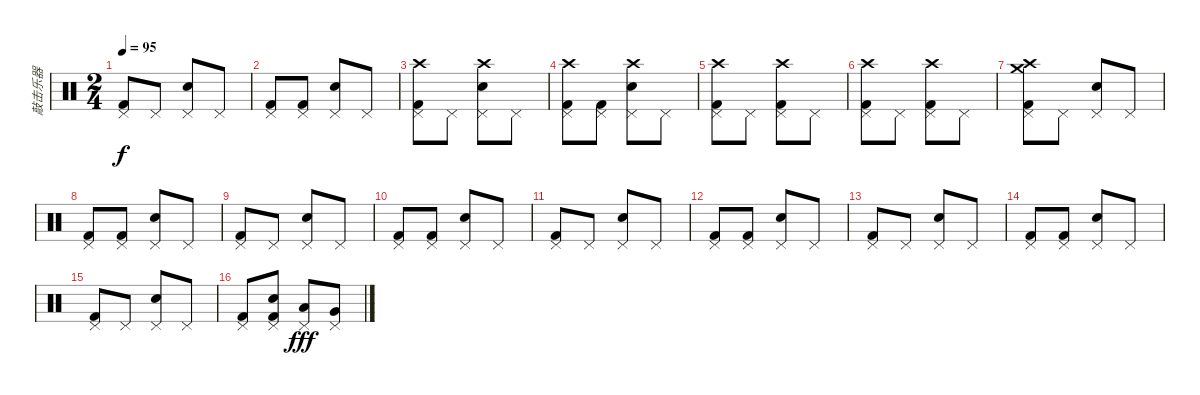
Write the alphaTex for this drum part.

\track ("敲击乐器" "敲击乐器") {instrument percussion}
\staff {score}
\articulation defaults
\ts (2 4)
\tempo 95
\clef neutral
\ks c
("Pedal Hi-Hat (hit)" "Kick (hit) 2").8{dy f} "Pedal Hi-Hat (hit)".8 ("Pedal Hi-Hat (hit)" "Electric Snare (hit)").8 "Pedal Hi-Hat (hit)".8 |
("Pedal Hi-Hat (hit)" "Kick (hit) 2").8 ("Pedal Hi-Hat (hit)" "Kick (hit) 2").8 ("Pedal Hi-Hat (hit)" "Electric Snare (hit)").8 "Pedal Hi-Hat (hit)".8 |
("Pedal Hi-Hat (hit)" "Crash high (hit)" "Kick (hit) 2").8 "Pedal Hi-Hat (hit)".8 ("Pedal Hi-Hat (hit)" "Crash high (hit)" "Electric Snare (hit)").8 "Pedal Hi-Hat (hit)".8 |
("Pedal Hi-Hat (hit)" "Crash high (hit)" "Kick (hit) 2").8 ("Pedal Hi-Hat (hit)" "Kick (hit) 2").8 ("Pedal Hi-Hat (hit)" "Crash high (hit)" "Electric Snare (hit)").8 "Pedal Hi-Hat (hit)".8 |
("Pedal Hi-Hat (hit)" "Crash high (hit)" "Kick (hit) 2").8 "Pedal Hi-Hat (hit)".8 ("Pedal Hi-Hat (hit)" "Crash high (hit)" "Kick (hit) 2").8 "Pedal Hi-Hat (hit)".8 |
("Pedal Hi-Hat (hit)" "Crash high (hit)" "Kick (hit) 2").8 "Pedal Hi-Hat (hit)".8 ("Pedal Hi-Hat (hit)" "Crash high (hit)" "Kick (hit) 2").8 "Pedal Hi-Hat (hit)".8 |
("Pedal Hi-Hat (hit)" "Crash high (hit)" "Crash medium (hit)" "Kick (hit) 2").8 "Pedal Hi-Hat (hit)".8 ("Pedal Hi-Hat (hit)" "Electric Snare (hit)").8 "Pedal Hi-Hat (hit)".8 |
("Pedal Hi-Hat (hit)" "Kick (hit) 2").8 ("Pedal Hi-Hat (hit)" "Kick (hit) 2").8 ("Pedal Hi-Hat (hit)" "Electric Snare (hit)").8 "Pedal Hi-Hat (hit)".8 |
("Pedal Hi-Hat (hit)" "Kick (hit) 2").8 "Pedal Hi-Hat (hit)".8 ("Pedal Hi-Hat (hit)" "Electric Snare (hit)").8 "Pedal Hi-Hat (hit)".8 |
("Pedal Hi-Hat (hit)" "Kick (hit) 2").8 ("Pedal Hi-Hat (hit)" "Kick (hit) 2").8 ("Pedal Hi-Hat (hit)" "Electric Snare (hit)").8 "Pedal Hi-Hat (hit)".8 |
("Pedal Hi-Hat (hit)" "Kick (hit) 2").8 "Pedal Hi-Hat (hit)".8 ("Pedal Hi-Hat (hit)" "Electric Snare (hit)").8 "Pedal Hi-Hat (hit)".8 |
("Pedal Hi-Hat (hit)" "Kick (hit) 2").8 ("Pedal Hi-Hat (hit)" "Kick (hit) 2").8 ("Pedal Hi-Hat (hit)" "Electric Snare (hit)").8 "Pedal Hi-Hat (hit)".8 |
("Pedal Hi-Hat (hit)" "Kick (hit) 2").8 "Pedal Hi-Hat (hit)".8 ("Pedal Hi-Hat (hit)" "Electric Snare (hit)").8 "Pedal Hi-Hat (hit)".8 |
("Pedal Hi-Hat (hit)" "Kick (hit) 2").8 ("Pedal Hi-Hat (hit)" "Kick (hit) 2").8 ("Pedal Hi-Hat (hit)" "Electric Snare (hit)").8 "Pedal Hi-Hat (hit)".8 |
("Pedal Hi-Hat (hit)" "Kick (hit) 2").8 "Pedal Hi-Hat (hit)".8 ("Pedal Hi-Hat (hit)" "Electric Snare (hit)").8 "Pedal Hi-Hat (hit)".8 |
("Pedal Hi-Hat (hit)" "Kick (hit) 2").8 ("Pedal Hi-Hat (hit)" "Electric Snare (hit)" "Kick (hit) 2").8 ("Pedal Hi-Hat (hit)" "Low Tom (hit)").8{dy fff} ("Pedal Hi-Hat (hit)" "Very Low Tom (hit)").8
